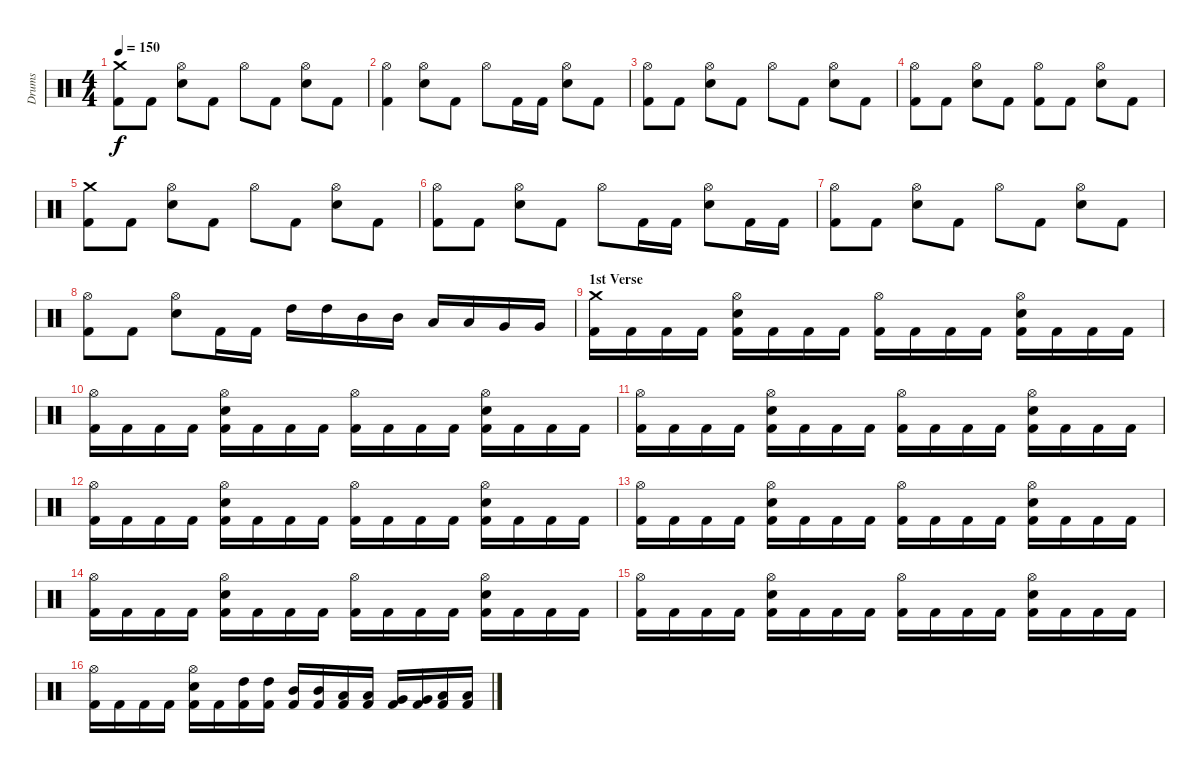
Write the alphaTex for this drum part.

\track ("Drums" "Drums") {instrument percussion}
\staff {score}
\articulation defaults
\ts (4 4)
\tempo 150
\clef neutral
\ks c
("Kick (hit) 2" "Crash medium (hit)").8{dy f} "Kick (hit) 2".8 ("Electric Snare (hit)" "Hi-Hat (open)").8 "Kick (hit) 2".8 "Hi-Hat (open)".8 "Kick (hit) 2".8 ("Electric Snare (hit)" "Hi-Hat (open)").8 "Kick (hit) 2".8 |
("Kick (hit) 2" "Hi-Hat (open)").4 ("Electric Snare (hit)" "Hi-Hat (open)").8 "Kick (hit) 2".8 "Hi-Hat (open)".8 "Kick (hit) 2".16 "Kick (hit) 2".16 ("Electric Snare (hit)" "Hi-Hat (open)").8 "Kick (hit) 2".8 |
("Kick (hit) 2" "Hi-Hat (open)").8 "Kick (hit) 2".8 ("Electric Snare (hit)" "Hi-Hat (open)").8 "Kick (hit) 2".8 "Hi-Hat (open)".8 "Kick (hit) 2".8 ("Electric Snare (hit)" "Hi-Hat (open)").8 "Kick (hit) 2".8 |
("Kick (hit) 2" "Hi-Hat (open)").8 "Kick (hit) 2".8 ("Electric Snare (hit)" "Hi-Hat (open)").8 "Kick (hit) 2".8 ("Kick (hit) 2" "Hi-Hat (open)").8 "Kick (hit) 2".8 ("Electric Snare (hit)" "Hi-Hat (open)").8 "Kick (hit) 2".8 |
("Kick (hit) 2" "Crash medium (hit)").8 "Kick (hit) 2".8 ("Electric Snare (hit)" "Hi-Hat (open)").8 "Kick (hit) 2".8 "Hi-Hat (open)".8 "Kick (hit) 2".8 ("Electric Snare (hit)" "Hi-Hat (open)").8 "Kick (hit) 2".8 |
("Kick (hit) 2" "Hi-Hat (open)").8 "Kick (hit) 2".8 ("Electric Snare (hit)" "Hi-Hat (open)").8 "Kick (hit) 2".8 "Hi-Hat (open)".8 "Kick (hit) 2".16 "Kick (hit) 2".16 ("Electric Snare (hit)" "Hi-Hat (open)").8 "Kick (hit) 2".16 "Kick (hit) 2".16 |
("Kick (hit) 2" "Hi-Hat (open)").8 "Kick (hit) 2".8 ("Electric Snare (hit)" "Hi-Hat (open)").8 "Kick (hit) 2".8 "Hi-Hat (open)".8 "Kick (hit) 2".8 ("Electric Snare (hit)" "Hi-Hat (open)").8 "Kick (hit) 2".8 |
("Kick (hit) 2" "Hi-Hat (open)").8 "Kick (hit) 2".8 ("Electric Snare (hit)" "Hi-Hat (open)").8 "Kick (hit) 2".16 "Kick (hit) 2".16 "High Tom (hit)".16 "High Tom (hit)".16 "Mid Tom (hit)".16 "Mid Tom (hit)".16 "Low Tom (hit)".16 "Low Tom (hit)".16 "Very Low Tom (hit)".16 "Very Low Tom (hit)".16 |
\section ("" "1st Verse")
("Kick (hit) 2" "Crash medium (hit)").16 "Kick (hit) 2".16 "Kick (hit) 2".16 "Kick (hit) 2".16 ("Kick (hit) 2" "Electric Snare (hit)" "Hi-Hat (open)").16 "Kick (hit) 2".16 "Kick (hit) 2".16 "Kick (hit) 2".16 ("Kick (hit) 2" "Hi-Hat (open)").16 "Kick (hit) 2".16 "Kick (hit) 2".16 "Kick (hit) 2".16 ("Kick (hit) 2" "Electric Snare (hit)" "Hi-Hat (open)").16 "Kick (hit) 2".16 "Kick (hit) 2".16 "Kick (hit) 2".16 |
("Kick (hit) 2" "Hi-Hat (open)").16 "Kick (hit) 2".16 "Kick (hit) 2".16 "Kick (hit) 2".16 ("Kick (hit) 2" "Electric Snare (hit)" "Hi-Hat (open)").16 "Kick (hit) 2".16 "Kick (hit) 2".16 "Kick (hit) 2".16 ("Kick (hit) 2" "Hi-Hat (open)").16 "Kick (hit) 2".16 "Kick (hit) 2".16 "Kick (hit) 2".16 ("Kick (hit) 2" "Electric Snare (hit)" "Hi-Hat (open)").16 "Kick (hit) 2".16 "Kick (hit) 2".16 "Kick (hit) 2".16 |
("Kick (hit) 2" "Hi-Hat (open)").16 "Kick (hit) 2".16 "Kick (hit) 2".16 "Kick (hit) 2".16 ("Kick (hit) 2" "Electric Snare (hit)" "Hi-Hat (open)").16 "Kick (hit) 2".16 "Kick (hit) 2".16 "Kick (hit) 2".16 ("Kick (hit) 2" "Hi-Hat (open)").16 "Kick (hit) 2".16 "Kick (hit) 2".16 "Kick (hit) 2".16 ("Kick (hit) 2" "Electric Snare (hit)" "Hi-Hat (open)").16 "Kick (hit) 2".16 "Kick (hit) 2".16 "Kick (hit) 2".16 |
("Kick (hit) 2" "Hi-Hat (open)").16 "Kick (hit) 2".16 "Kick (hit) 2".16 "Kick (hit) 2".16 ("Kick (hit) 2" "Electric Snare (hit)" "Hi-Hat (open)").16 "Kick (hit) 2".16 "Kick (hit) 2".16 "Kick (hit) 2".16 ("Kick (hit) 2" "Hi-Hat (open)").16 "Kick (hit) 2".16 "Kick (hit) 2".16 "Kick (hit) 2".16 ("Kick (hit) 2" "Electric Snare (hit)" "Hi-Hat (open)").16 "Kick (hit) 2".16 "Kick (hit) 2".16 "Kick (hit) 2".16 |
("Kick (hit) 2" "Hi-Hat (open)").16 "Kick (hit) 2".16 "Kick (hit) 2".16 "Kick (hit) 2".16 ("Kick (hit) 2" "Electric Snare (hit)" "Hi-Hat (open)").16 "Kick (hit) 2".16 "Kick (hit) 2".16 "Kick (hit) 2".16 ("Kick (hit) 2" "Hi-Hat (open)").16 "Kick (hit) 2".16 "Kick (hit) 2".16 "Kick (hit) 2".16 ("Kick (hit) 2" "Electric Snare (hit)" "Hi-Hat (open)").16 "Kick (hit) 2".16 "Kick (hit) 2".16 "Kick (hit) 2".16 |
("Kick (hit) 2" "Hi-Hat (open)").16 "Kick (hit) 2".16 "Kick (hit) 2".16 "Kick (hit) 2".16 ("Kick (hit) 2" "Electric Snare (hit)" "Hi-Hat (open)").16 "Kick (hit) 2".16 "Kick (hit) 2".16 "Kick (hit) 2".16 ("Kick (hit) 2" "Hi-Hat (open)").16 "Kick (hit) 2".16 "Kick (hit) 2".16 "Kick (hit) 2".16 ("Kick (hit) 2" "Electric Snare (hit)" "Hi-Hat (open)").16 "Kick (hit) 2".16 "Kick (hit) 2".16 "Kick (hit) 2".16 |
("Kick (hit) 2" "Hi-Hat (open)").16 "Kick (hit) 2".16 "Kick (hit) 2".16 "Kick (hit) 2".16 ("Kick (hit) 2" "Electric Snare (hit)" "Hi-Hat (open)").16 "Kick (hit) 2".16 "Kick (hit) 2".16 "Kick (hit) 2".16 ("Kick (hit) 2" "Hi-Hat (open)").16 "Kick (hit) 2".16 "Kick (hit) 2".16 "Kick (hit) 2".16 ("Kick (hit) 2" "Electric Snare (hit)" "Hi-Hat (open)").16 "Kick (hit) 2".16 "Kick (hit) 2".16 "Kick (hit) 2".16 |
("Kick (hit) 2" "Hi-Hat (open)").16 "Kick (hit) 2".16 "Kick (hit) 2".16 "Kick (hit) 2".16 ("Kick (hit) 2" "Electric Snare (hit)" "Hi-Hat (open)").16 "Kick (hit) 2".16 ("Kick (hit) 2" "High Tom (hit)").16 ("Kick (hit) 2" "High Tom (hit)").16 ("Kick (hit) 2" "Mid Tom (hit)").16 ("Kick (hit) 2" "Mid Tom (hit)").16 ("Kick (hit) 2" "Low Tom (hit)").16 ("Kick (hit) 2" "Low Tom (hit)").16 ("Kick (hit) 2" "Very Low Tom (hit)").16 ("Kick (hit) 2" "Very Low Tom (hit)").16 ("Kick (hit) 2" "Low Floor Tom (hit)").16 ("Kick (hit) 2" "Low Floor Tom (hit)").16
